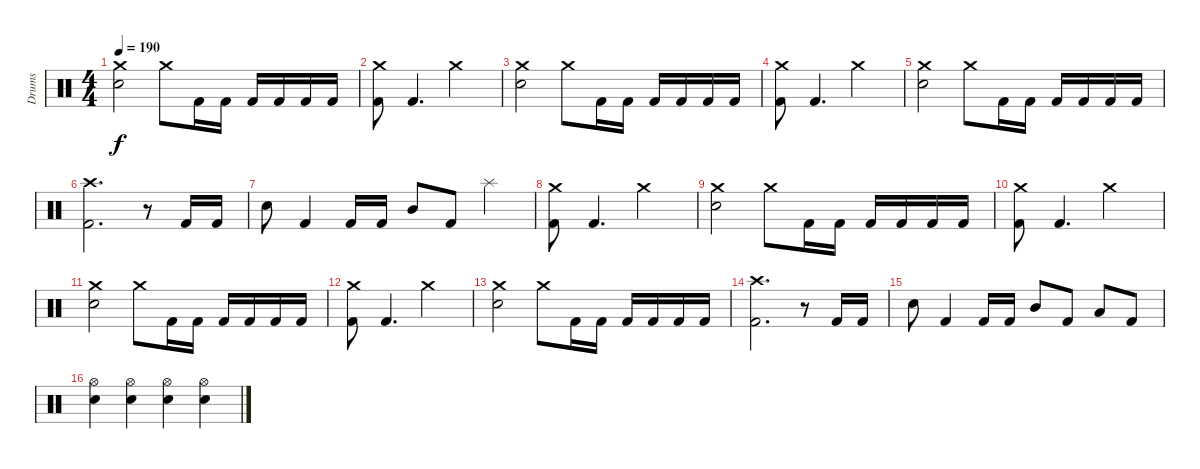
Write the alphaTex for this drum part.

\track ("Drums" "Drums") {instrument percussion}
\staff {score}
\articulation defaults
\ts (4 4)
\tempo 190
\clef neutral
\ks c
("Crash medium (hit)" "Electric Snare (hit)").2{dy f} "Crash medium (hit)".8 "Kick (hit) 2".16 "Kick (hit) 2".16 "Kick (hit) 2".16 "Kick (hit) 2".16 "Kick (hit) 2".16 "Kick (hit) 2".16 |
("Crash medium (hit)" "Kick (hit) 2").8 "Kick (hit) 2".4{d} "Crash medium (hit)".2 |
("Crash medium (hit)" "Electric Snare (hit)").2 "Crash medium (hit)".8 "Kick (hit) 2".16 "Kick (hit) 2".16 "Kick (hit) 2".16 "Kick (hit) 2".16 "Kick (hit) 2".16 "Kick (hit) 2".16 |
("Crash medium (hit)" "Kick (hit) 2").8 "Kick (hit) 2".4{d} "Crash medium (hit)".2 |
("Crash medium (hit)" "Electric Snare (hit)").2 "Crash medium (hit)".8 "Kick (hit) 2".16 "Kick (hit) 2".16 "Kick (hit) 2".16 "Kick (hit) 2".16 "Kick (hit) 2".16 "Kick (hit) 2".16 |
("Crash high (hit)" "Kick (hit) 2").2{d} r.8 "Kick (hit) 2".16 "Kick (hit) 2".16 |
"Electric Snare (hit)".8 "Kick (hit) 2".4 "Kick (hit) 2".16 "Kick (hit) 2".16 "Mid Tom (hit)".8 "Kick (hit) 2".8 "Splash (hit)".4 |
("Crash medium (hit)" "Kick (hit) 2").8 "Kick (hit) 2".4{d} "Crash medium (hit)".2 |
("Crash medium (hit)" "Electric Snare (hit)").2 "Crash medium (hit)".8 "Kick (hit) 2".16 "Kick (hit) 2".16 "Kick (hit) 2".16 "Kick (hit) 2".16 "Kick (hit) 2".16 "Kick (hit) 2".16 |
("Crash medium (hit)" "Kick (hit) 2").8 "Kick (hit) 2".4{d} "Crash medium (hit)".2 |
("Crash medium (hit)" "Electric Snare (hit)").2 "Crash medium (hit)".8 "Kick (hit) 2".16 "Kick (hit) 2".16 "Kick (hit) 2".16 "Kick (hit) 2".16 "Kick (hit) 2".16 "Kick (hit) 2".16 |
("Crash medium (hit)" "Kick (hit) 2").8 "Kick (hit) 2".4{d} "Crash medium (hit)".2 |
("Crash medium (hit)" "Electric Snare (hit)").2 "Crash medium (hit)".8 "Kick (hit) 2".16 "Kick (hit) 2".16 "Kick (hit) 2".16 "Kick (hit) 2".16 "Kick (hit) 2".16 "Kick (hit) 2".16 |
("Crash high (hit)" "Kick (hit) 2").2{d} r.8 "Kick (hit) 2".16 "Kick (hit) 2".16 |
"Electric Snare (hit)".8 "Kick (hit) 2".4 "Kick (hit) 2".16 "Kick (hit) 2".16 "Mid Tom (hit)".8 "Kick (hit) 2".8 "Low Tom (hit)".8 "Kick (hit) 2".8 |
("Hi-Hat (open)" "Electric Snare (hit)").4 ("Hi-Hat (open)" "Electric Snare (hit)").4 ("Hi-Hat (open)" "Electric Snare (hit)").4 ("Hi-Hat (open)" "Electric Snare (hit)").4
